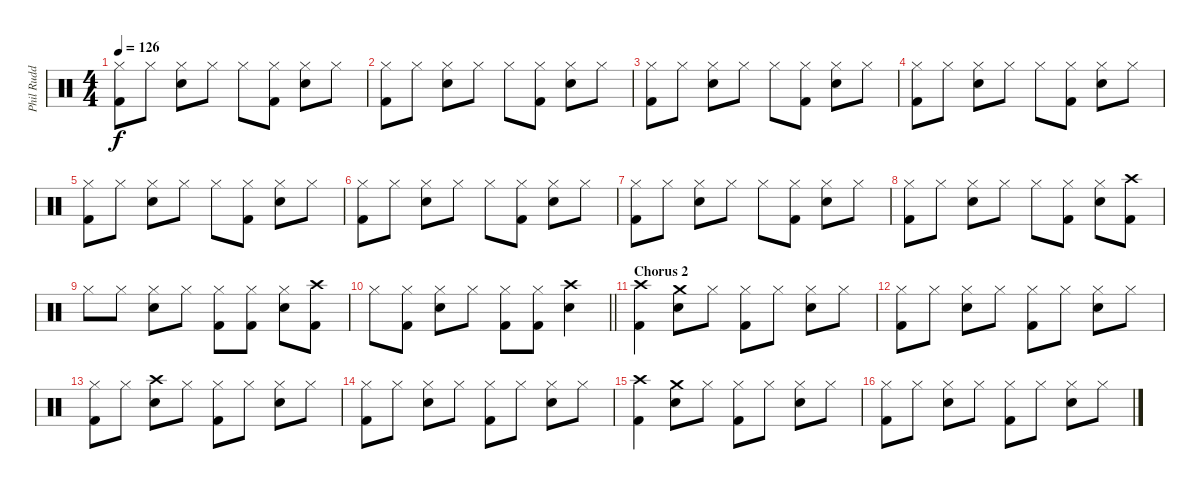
\track ("Phil Rudd (Drums)" "Phil Rudd ") {instrument percussion}
\staff {score}
\articulation defaults
\ts (4 4)
\tempo 126
\clef neutral
\ks c
("Hi-Hat (closed)" "Kick (hit) 2").8{dy f} "Hi-Hat (closed)".8 ("Hi-Hat (closed)" "Snare (hit) 2").8 "Hi-Hat (closed)".8 "Hi-Hat (closed)".8 ("Hi-Hat (closed)" "Kick (hit) 2").8 ("Hi-Hat (closed)" "Snare (hit) 2").8 "Hi-Hat (closed)".8 |
("Hi-Hat (closed)" "Kick (hit) 2").8 "Hi-Hat (closed)".8 ("Hi-Hat (closed)" "Snare (hit) 2").8 "Hi-Hat (closed)".8 "Hi-Hat (closed)".8 ("Hi-Hat (closed)" "Kick (hit) 2").8 ("Hi-Hat (closed)" "Snare (hit) 2").8 "Hi-Hat (closed)".8 |
("Hi-Hat (closed)" "Kick (hit) 2").8 "Hi-Hat (closed)".8 ("Hi-Hat (closed)" "Snare (hit) 2").8 "Hi-Hat (closed)".8 "Hi-Hat (closed)".8 ("Hi-Hat (closed)" "Kick (hit) 2").8 ("Hi-Hat (closed)" "Snare (hit) 2").8 "Hi-Hat (closed)".8 |
("Hi-Hat (closed)" "Kick (hit) 2").8 "Hi-Hat (closed)".8 ("Hi-Hat (closed)" "Snare (hit) 2").8 "Hi-Hat (closed)".8 "Hi-Hat (closed)".8 ("Hi-Hat (closed)" "Kick (hit) 2").8 ("Hi-Hat (closed)" "Snare (hit) 2").8 "Hi-Hat (closed)".8 |
("Hi-Hat (closed)" "Kick (hit) 2").8 "Hi-Hat (closed)".8 ("Hi-Hat (closed)" "Snare (hit) 2").8 "Hi-Hat (closed)".8 "Hi-Hat (closed)".8 ("Hi-Hat (closed)" "Kick (hit) 2").8 ("Hi-Hat (closed)" "Snare (hit) 2").8 "Hi-Hat (closed)".8 |
("Hi-Hat (closed)" "Kick (hit) 2").8 "Hi-Hat (closed)".8 ("Hi-Hat (closed)" "Snare (hit) 2").8 "Hi-Hat (closed)".8 "Hi-Hat (closed)".8 ("Hi-Hat (closed)" "Kick (hit) 2").8 ("Hi-Hat (closed)" "Snare (hit) 2").8 "Hi-Hat (closed)".8 |
("Hi-Hat (closed)" "Kick (hit) 2").8 "Hi-Hat (closed)".8 ("Hi-Hat (closed)" "Snare (hit) 2").8 "Hi-Hat (closed)".8 "Hi-Hat (closed)".8 ("Hi-Hat (closed)" "Kick (hit) 2").8 ("Hi-Hat (closed)" "Snare (hit) 2").8 "Hi-Hat (closed)".8 |
("Hi-Hat (closed)" "Kick (hit) 2").8 "Hi-Hat (closed)".8 ("Hi-Hat (closed)" "Snare (hit) 2").8 "Hi-Hat (closed)".8 "Hi-Hat (closed)".8 ("Hi-Hat (closed)" "Kick (hit) 2").8 ("Hi-Hat (closed)" "Snare (hit) 2").8 ("Crash high (hit)" "Kick (hit) 2").8 |
"Hi-Hat (closed)".8 "Hi-Hat (closed)".8 ("Hi-Hat (closed)" "Snare (hit) 2").8 "Hi-Hat (closed)".8 ("Hi-Hat (closed)" "Kick (hit) 2").8 ("Hi-Hat (closed)" "Kick (hit) 2").8 ("Hi-Hat (closed)" "Snare (hit) 2").8 ("Crash high (hit)" "Kick (hit) 2").8 |
\barLineRight lightlight "Hi-Hat (closed)".8
("Hi-Hat (closed)" "Kick (hit) 2").8 ("Hi-Hat (closed)" "Snare (hit) 2").8 "Hi-Hat (closed)".8 ("Hi-Hat (closed)" "Kick (hit) 2").8 ("Hi-Hat (closed)" "Kick (hit) 2").8 ("Crash high (hit)" "Snare (hit) 2").4 |
\section ("" "Chorus 2")
("Crash high (hit)" "Kick (hit) 2").4 ("Crash medium (hit)" "Snare (hit) 2").8 "Hi-Hat (closed)".8 ("Hi-Hat (closed)" "Kick (hit) 2").8 "Hi-Hat (closed)".8 ("Hi-Hat (closed)" "Snare (hit) 2").8 "Hi-Hat (closed)".8 |
("Hi-Hat (closed)" "Kick (hit) 2").8 "Hi-Hat (closed)".8 ("Hi-Hat (closed)" "Snare (hit) 2").8 "Hi-Hat (closed)".8 ("Hi-Hat (closed)" "Kick (hit) 2").8 "Hi-Hat (closed)".8 ("Hi-Hat (closed)" "Snare (hit) 2").8 "Hi-Hat (closed)".8 |
("Hi-Hat (closed)" "Kick (hit) 2").8 "Hi-Hat (closed)".8 ("Crash high (hit)" "Snare (hit) 2").8 "Hi-Hat (closed)".8 ("Hi-Hat (closed)" "Kick (hit) 2").8 "Hi-Hat (closed)".8 ("Hi-Hat (closed)" "Snare (hit) 2").8 "Hi-Hat (closed)".8 |
("Hi-Hat (closed)" "Kick (hit) 2").8 "Hi-Hat (closed)".8 ("Hi-Hat (closed)" "Snare (hit) 2").8 "Hi-Hat (closed)".8 ("Hi-Hat (closed)" "Kick (hit) 2").8 "Hi-Hat (closed)".8 ("Hi-Hat (closed)" "Snare (hit) 2").8 "Hi-Hat (closed)".8 |
("Crash high (hit)" "Kick (hit) 2").4 ("Crash medium (hit)" "Snare (hit) 2").8 "Hi-Hat (closed)".8 ("Hi-Hat (closed)" "Kick (hit) 2").8 "Hi-Hat (closed)".8 ("Hi-Hat (closed)" "Snare (hit) 2").8 "Hi-Hat (closed)".8 |
("Hi-Hat (closed)" "Kick (hit) 2").8 "Hi-Hat (closed)".8 ("Hi-Hat (closed)" "Snare (hit) 2").8 "Hi-Hat (closed)".8 ("Hi-Hat (closed)" "Kick (hit) 2").8 "Hi-Hat (closed)".8 ("Hi-Hat (closed)" "Snare (hit) 2").8 "Hi-Hat (closed)".8
